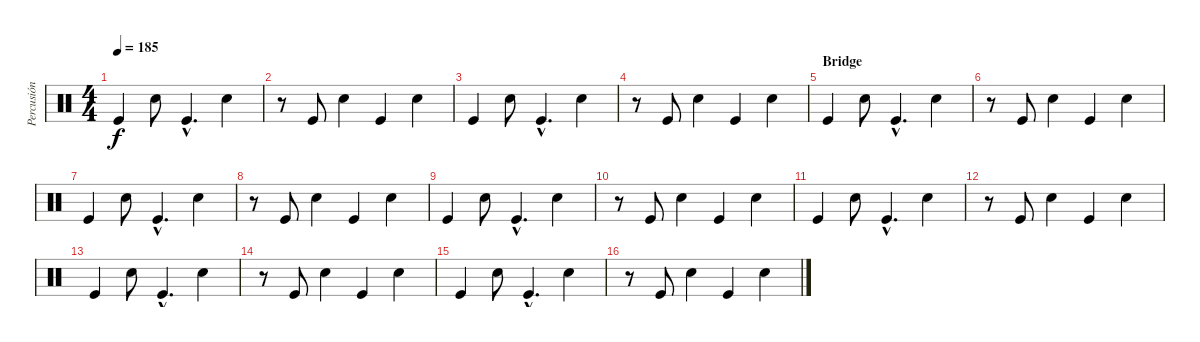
\track ("Percusión" "Percusión") {instrument percussion}
\staff {score}
\articulation defaults
\ts (4 4)
\tempo 185
\clef neutral
\ks c "Kick (hit)".4{dy f} "Electric Snare (hit)".8 "Kick (hit)"{hac}.4{d} "Electric Snare (hit)".4
|
r.8 "Kick (hit)".8 "Electric Snare (hit)".4 "Kick (hit)".4 "Electric Snare (hit)".4 |
"Kick (hit)".4 "Electric Snare (hit)".8 "Kick (hit)"{hac}.4{d} "Electric Snare (hit)".4 |
r.8 "Kick (hit)".8 "Electric Snare (hit)".4 "Kick (hit)".4 "Electric Snare (hit)".4 |
\section ("" "Bridge")
"Kick (hit)".4 "Electric Snare (hit)".8 "Kick (hit)"{hac}.4{d} "Electric Snare (hit)".4 |
r.8 "Kick (hit)".8 "Electric Snare (hit)".4 "Kick (hit)".4 "Electric Snare (hit)".4 |
"Kick (hit)".4 "Electric Snare (hit)".8 "Kick (hit)"{hac}.4{d} "Electric Snare (hit)".4 |
r.8 "Kick (hit)".8 "Electric Snare (hit)".4 "Kick (hit)".4 "Electric Snare (hit)".4 |
"Kick (hit)".4 "Electric Snare (hit)".8 "Kick (hit)"{hac}.4{d} "Electric Snare (hit)".4 |
r.8 "Kick (hit)".8 "Electric Snare (hit)".4 "Kick (hit)".4 "Electric Snare (hit)".4 |
"Kick (hit)".4 "Electric Snare (hit)".8 "Kick (hit)"{hac}.4{d} "Electric Snare (hit)".4 |
r.8 "Kick (hit)".8 "Electric Snare (hit)".4 "Kick (hit)".4 "Electric Snare (hit)".4 |
"Kick (hit)".4 "Electric Snare (hit)".8 "Kick (hit)"{hac}.4{d} "Electric Snare (hit)".4 |
r.8 "Kick (hit)".8 "Electric Snare (hit)".4 "Kick (hit)".4 "Electric Snare (hit)".4 |
"Kick (hit)".4 "Electric Snare (hit)".8 "Kick (hit)"{hac}.4{d} "Electric Snare (hit)".4 |
r.8 "Kick (hit)".8 "Electric Snare (hit)".4 "Kick (hit)".4 "Electric Snare (hit)".4
